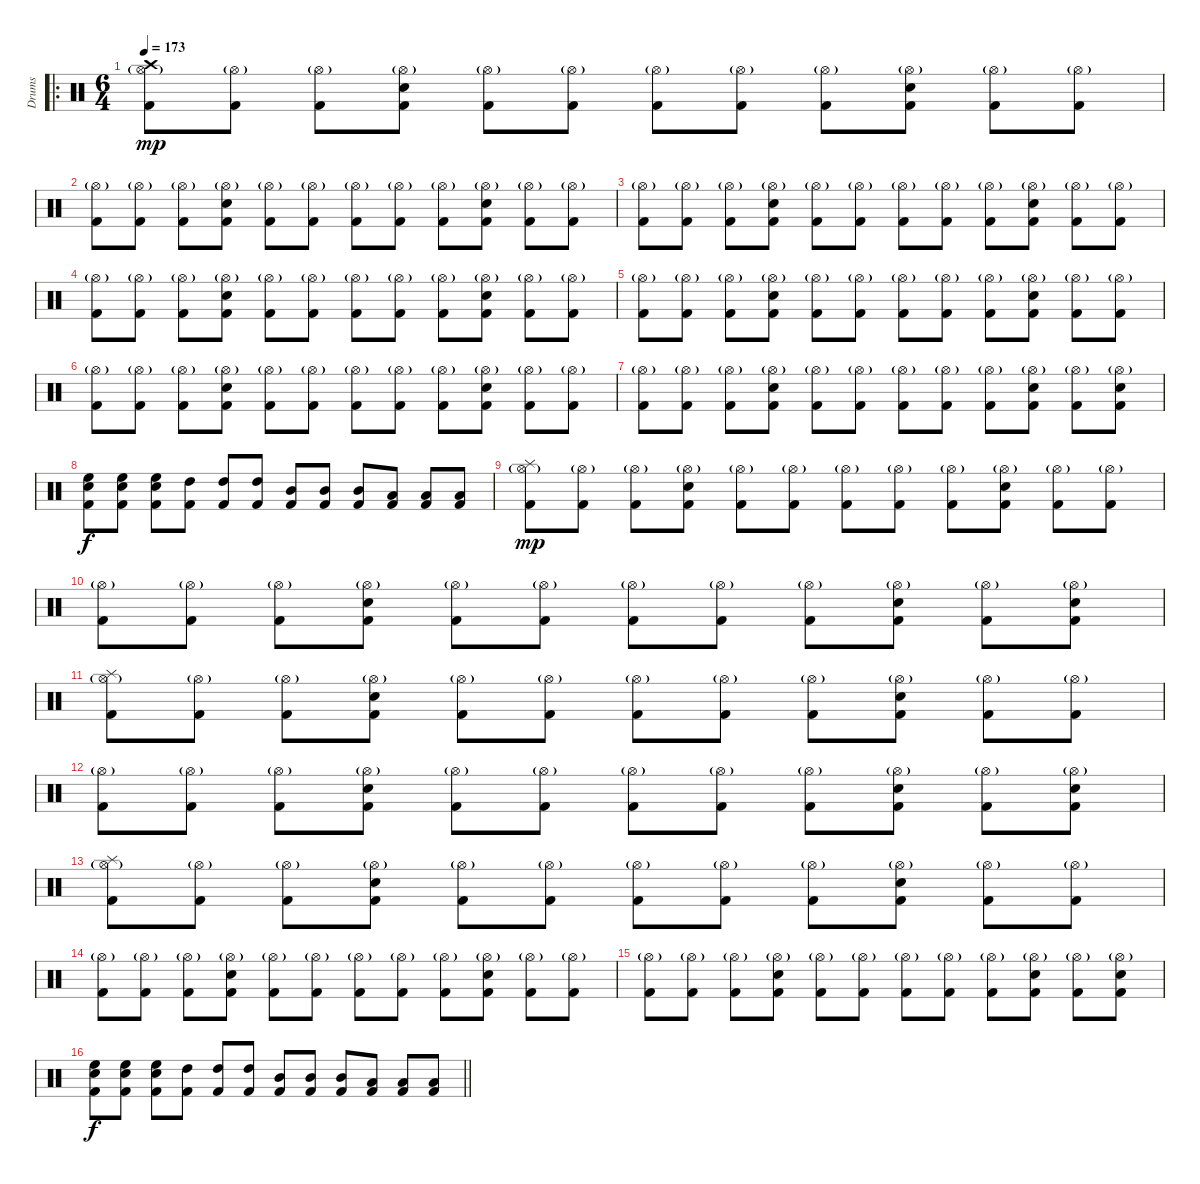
\track ("Drums" "Drums") {instrument percussion}
\staff {score}
\articulation defaults
\ro
\ts (6 4)
\section ("" "")
\tempo 173
\clef neutral
\ks c
("Kick (hit) 2" "Hi-Hat (open)"{g} "Crash high (hit)").8{dy mp} ("Kick (hit) 2" "Hi-Hat (open)"{g}).8 ("Kick (hit) 2" "Hi-Hat (open)"{g}).8 ("Kick (hit) 2" "Snare (hit) 2" "Hi-Hat (open)"{g}).8 ("Kick (hit) 2" "Hi-Hat (open)"{g}).8 ("Kick (hit) 2" "Hi-Hat (open)"{g}).8 ("Kick (hit) 2" "Hi-Hat (open)"{g}).8 ("Kick (hit) 2" "Hi-Hat (open)"{g}).8 ("Kick (hit) 2" "Hi-Hat (open)"{g}).8 ("Kick (hit) 2" "Snare (hit) 2" "Hi-Hat (open)"{g}).8 ("Kick (hit) 2" "Hi-Hat (open)"{g}).8 ("Kick (hit) 2" "Hi-Hat (open)"{g}).8 |
("Kick (hit) 2" "Hi-Hat (open)"{g}).8 ("Kick (hit) 2" "Hi-Hat (open)"{g}).8 ("Kick (hit) 2" "Hi-Hat (open)"{g}).8 ("Kick (hit) 2" "Snare (hit) 2" "Hi-Hat (open)"{g}).8 ("Kick (hit) 2" "Hi-Hat (open)"{g}).8 ("Kick (hit) 2" "Hi-Hat (open)"{g}).8 ("Kick (hit) 2" "Hi-Hat (open)"{g}).8 ("Kick (hit) 2" "Hi-Hat (open)"{g}).8 ("Kick (hit) 2" "Hi-Hat (open)"{g}).8 ("Kick (hit) 2" "Snare (hit) 2" "Hi-Hat (open)"{g}).8 ("Kick (hit) 2" "Hi-Hat (open)"{g}).8 ("Kick (hit) 2" "Hi-Hat (open)"{g}).8 |
("Kick (hit) 2" "Hi-Hat (open)"{g}).8 ("Kick (hit) 2" "Hi-Hat (open)"{g}).8 ("Kick (hit) 2" "Hi-Hat (open)"{g}).8 ("Kick (hit) 2" "Snare (hit) 2" "Hi-Hat (open)"{g}).8 ("Kick (hit) 2" "Hi-Hat (open)"{g}).8 ("Kick (hit) 2" "Hi-Hat (open)"{g}).8 ("Kick (hit) 2" "Hi-Hat (open)"{g}).8 ("Kick (hit) 2" "Hi-Hat (open)"{g}).8 ("Kick (hit) 2" "Hi-Hat (open)"{g}).8 ("Kick (hit) 2" "Snare (hit) 2" "Hi-Hat (open)"{g}).8 ("Kick (hit) 2" "Hi-Hat (open)"{g}).8 ("Kick (hit) 2" "Hi-Hat (open)"{g}).8 |
("Kick (hit) 2" "Hi-Hat (open)"{g}).8 ("Kick (hit) 2" "Hi-Hat (open)"{g}).8 ("Kick (hit) 2" "Hi-Hat (open)"{g}).8 ("Kick (hit) 2" "Snare (hit) 2" "Hi-Hat (open)"{g}).8 ("Kick (hit) 2" "Hi-Hat (open)"{g}).8 ("Kick (hit) 2" "Hi-Hat (open)"{g}).8 ("Kick (hit) 2" "Hi-Hat (open)"{g}).8 ("Kick (hit) 2" "Hi-Hat (open)"{g}).8 ("Kick (hit) 2" "Hi-Hat (open)"{g}).8 ("Kick (hit) 2" "Snare (hit) 2" "Hi-Hat (open)"{g}).8 ("Kick (hit) 2" "Hi-Hat (open)"{g}).8 ("Kick (hit) 2" "Hi-Hat (open)"{g}).8 |
("Kick (hit) 2" "Hi-Hat (open)"{g}).8 ("Kick (hit) 2" "Hi-Hat (open)"{g}).8 ("Kick (hit) 2" "Hi-Hat (open)"{g}).8 ("Kick (hit) 2" "Snare (hit) 2" "Hi-Hat (open)"{g}).8 ("Kick (hit) 2" "Hi-Hat (open)"{g}).8 ("Kick (hit) 2" "Hi-Hat (open)"{g}).8 ("Kick (hit) 2" "Hi-Hat (open)"{g}).8 ("Kick (hit) 2" "Hi-Hat (open)"{g}).8 ("Kick (hit) 2" "Hi-Hat (open)"{g}).8 ("Kick (hit) 2" "Snare (hit) 2" "Hi-Hat (open)"{g}).8 ("Kick (hit) 2" "Hi-Hat (open)"{g}).8 ("Kick (hit) 2" "Hi-Hat (open)"{g}).8 |
("Kick (hit) 2" "Hi-Hat (open)"{g}).8 ("Kick (hit) 2" "Hi-Hat (open)"{g}).8 ("Kick (hit) 2" "Hi-Hat (open)"{g}).8 ("Kick (hit) 2" "Snare (hit) 2" "Hi-Hat (open)"{g}).8 ("Kick (hit) 2" "Hi-Hat (open)"{g}).8 ("Kick (hit) 2" "Hi-Hat (open)"{g}).8 ("Kick (hit) 2" "Hi-Hat (open)"{g}).8 ("Kick (hit) 2" "Hi-Hat (open)"{g}).8 ("Kick (hit) 2" "Hi-Hat (open)"{g}).8 ("Kick (hit) 2" "Snare (hit) 2" "Hi-Hat (open)"{g}).8 ("Kick (hit) 2" "Hi-Hat (open)"{g}).8 ("Kick (hit) 2" "Hi-Hat (open)"{g}).8 |
("Kick (hit) 2" "Hi-Hat (open)"{g}).8 ("Kick (hit) 2" "Hi-Hat (open)"{g}).8 ("Kick (hit) 2" "Hi-Hat (open)"{g}).8 ("Kick (hit) 2" "Snare (hit) 2" "Hi-Hat (open)"{g}).8 ("Kick (hit) 2" "Hi-Hat (open)"{g}).8 ("Kick (hit) 2" "Hi-Hat (open)"{g}).8 ("Kick (hit) 2" "Hi-Hat (open)"{g}).8 ("Kick (hit) 2" "Hi-Hat (open)"{g}).8 ("Kick (hit) 2" "Hi-Hat (open)"{g}).8 ("Kick (hit) 2" "Snare (hit) 2" "Hi-Hat (open)"{g}).8 ("Kick (hit) 2" "Hi-Hat (open)"{g}).8 ("Kick (hit) 2" "Snare (hit) 2" "Hi-Hat (open)"{g}).8 |
("Kick (hit) 2" "Snare (hit) 2" "High Floor Tom (hit)").8{dy f} ("Kick (hit) 2" "Snare (hit) 2" "High Floor Tom (hit)").8 ("Kick (hit) 2" "Snare (hit) 2" "High Floor Tom (hit)").8 ("Kick (hit) 2" "High Tom (hit)").8 ("Kick (hit) 2" "High Tom (hit)").8 ("Kick (hit) 2" "High Tom (hit)").8 ("Kick (hit) 2" "Mid Tom (hit)").8 ("Kick (hit) 2" "Mid Tom (hit)").8 ("Kick (hit) 2" "Mid Tom (hit)").8 ("Kick (hit) 2" "Low Tom (hit)").8 ("Kick (hit) 2" "Low Tom (hit)").8 ("Kick (hit) 2" "Low Tom (hit)").8 |
("Kick (hit) 2" "Hi-Hat (open)"{g} "Splash (hit)").8{dy mp} ("Kick (hit) 2" "Hi-Hat (open)"{g}).8 ("Kick (hit) 2" "Hi-Hat (open)"{g}).8 ("Kick (hit) 2" "Snare (hit) 2" "Hi-Hat (open)"{g}).8 ("Kick (hit) 2" "Hi-Hat (open)"{g}).8 ("Kick (hit) 2" "Hi-Hat (open)"{g}).8 ("Kick (hit) 2" "Hi-Hat (open)"{g}).8 ("Kick (hit) 2" "Hi-Hat (open)"{g}).8 ("Kick (hit) 2" "Hi-Hat (open)"{g}).8 ("Kick (hit) 2" "Snare (hit) 2" "Hi-Hat (open)"{g}).8 ("Kick (hit) 2" "Hi-Hat (open)"{g}).8 ("Kick (hit) 2" "Hi-Hat (open)"{g}).8 |
("Kick (hit) 2" "Hi-Hat (open)"{g}).8 ("Kick (hit) 2" "Hi-Hat (open)"{g}).8 ("Kick (hit) 2" "Hi-Hat (open)"{g}).8 ("Kick (hit) 2" "Snare (hit) 2" "Hi-Hat (open)"{g}).8 ("Kick (hit) 2" "Hi-Hat (open)"{g}).8 ("Kick (hit) 2" "Hi-Hat (open)"{g}).8 ("Kick (hit) 2" "Hi-Hat (open)"{g}).8 ("Kick (hit) 2" "Hi-Hat (open)"{g}).8 ("Kick (hit) 2" "Hi-Hat (open)"{g}).8 ("Kick (hit) 2" "Snare (hit) 2" "Hi-Hat (open)"{g}).8 ("Kick (hit) 2" "Hi-Hat (open)"{g}).8 ("Kick (hit) 2" "Snare (hit) 2" "Hi-Hat (open)"{g}).8 |
("Kick (hit) 2" "Hi-Hat (open)"{g} "Splash (hit)").8 ("Kick (hit) 2" "Hi-Hat (open)"{g}).8 ("Kick (hit) 2" "Hi-Hat (open)"{g}).8 ("Kick (hit) 2" "Snare (hit) 2" "Hi-Hat (open)"{g}).8 ("Kick (hit) 2" "Hi-Hat (open)"{g}).8 ("Kick (hit) 2" "Hi-Hat (open)"{g}).8 ("Kick (hit) 2" "Hi-Hat (open)"{g}).8 ("Kick (hit) 2" "Hi-Hat (open)"{g}).8 ("Kick (hit) 2" "Hi-Hat (open)"{g}).8 ("Kick (hit) 2" "Snare (hit) 2" "Hi-Hat (open)"{g}).8 ("Kick (hit) 2" "Hi-Hat (open)"{g}).8 ("Kick (hit) 2" "Hi-Hat (open)"{g}).8 |
("Kick (hit) 2" "Hi-Hat (open)"{g}).8 ("Kick (hit) 2" "Hi-Hat (open)"{g}).8 ("Kick (hit) 2" "Hi-Hat (open)"{g}).8 ("Kick (hit) 2" "Snare (hit) 2" "Hi-Hat (open)"{g}).8 ("Kick (hit) 2" "Hi-Hat (open)"{g}).8 ("Kick (hit) 2" "Hi-Hat (open)"{g}).8 ("Kick (hit) 2" "Hi-Hat (open)"{g}).8 ("Kick (hit) 2" "Hi-Hat (open)"{g}).8 ("Kick (hit) 2" "Hi-Hat (open)"{g}).8 ("Kick (hit) 2" "Snare (hit) 2" "Hi-Hat (open)"{g}).8 ("Kick (hit) 2" "Hi-Hat (open)"{g}).8 ("Kick (hit) 2" "Snare (hit) 2" "Hi-Hat (open)"{g}).8 |
("Kick (hit) 2" "Hi-Hat (open)"{g} "Splash (hit)").8 ("Kick (hit) 2" "Hi-Hat (open)"{g}).8 ("Kick (hit) 2" "Hi-Hat (open)"{g}).8 ("Kick (hit) 2" "Snare (hit) 2" "Hi-Hat (open)"{g}).8 ("Kick (hit) 2" "Hi-Hat (open)"{g}).8 ("Kick (hit) 2" "Hi-Hat (open)"{g}).8 ("Kick (hit) 2" "Hi-Hat (open)"{g}).8 ("Kick (hit) 2" "Hi-Hat (open)"{g}).8 ("Kick (hit) 2" "Hi-Hat (open)"{g}).8 ("Kick (hit) 2" "Snare (hit) 2" "Hi-Hat (open)"{g}).8 ("Kick (hit) 2" "Hi-Hat (open)"{g}).8 ("Kick (hit) 2" "Hi-Hat (open)"{g}).8 |
("Kick (hit) 2" "Hi-Hat (open)"{g}).8 ("Kick (hit) 2" "Hi-Hat (open)"{g}).8 ("Kick (hit) 2" "Hi-Hat (open)"{g}).8 ("Kick (hit) 2" "Snare (hit) 2" "Hi-Hat (open)"{g}).8 ("Kick (hit) 2" "Hi-Hat (open)"{g}).8 ("Kick (hit) 2" "Hi-Hat (open)"{g}).8 ("Kick (hit) 2" "Hi-Hat (open)"{g}).8 ("Kick (hit) 2" "Hi-Hat (open)"{g}).8 ("Kick (hit) 2" "Hi-Hat (open)"{g}).8 ("Kick (hit) 2" "Snare (hit) 2" "Hi-Hat (open)"{g}).8 ("Kick (hit) 2" "Hi-Hat (open)"{g}).8 ("Kick (hit) 2" "Hi-Hat (open)"{g}).8 |
("Kick (hit) 2" "Hi-Hat (open)"{g}).8 ("Kick (hit) 2" "Hi-Hat (open)"{g}).8 ("Kick (hit) 2" "Hi-Hat (open)"{g}).8 ("Kick (hit) 2" "Snare (hit) 2" "Hi-Hat (open)"{g}).8 ("Kick (hit) 2" "Hi-Hat (open)"{g}).8 ("Kick (hit) 2" "Hi-Hat (open)"{g}).8 ("Kick (hit) 2" "Hi-Hat (open)"{g}).8 ("Kick (hit) 2" "Hi-Hat (open)"{g}).8 ("Kick (hit) 2" "Hi-Hat (open)"{g}).8 ("Kick (hit) 2" "Snare (hit) 2" "Hi-Hat (open)"{g}).8 ("Kick (hit) 2" "Hi-Hat (open)"{g}).8 ("Kick (hit) 2" "Snare (hit) 2" "Hi-Hat (open)"{g}).8 |
\barLineRight lightlight
("Kick (hit) 2" "Snare (hit) 2" "High Floor Tom (hit)").8{dy f} ("Kick (hit) 2" "Snare (hit) 2" "High Floor Tom (hit)").8 ("Kick (hit) 2" "Snare (hit) 2" "High Floor Tom (hit)").8 ("Kick (hit) 2" "High Tom (hit)").8 ("Kick (hit) 2" "High Tom (hit)").8 ("Kick (hit) 2" "High Tom (hit)").8 ("Kick (hit) 2" "Mid Tom (hit)").8 ("Kick (hit) 2" "Mid Tom (hit)").8 ("Kick (hit) 2" "Mid Tom (hit)").8 ("Kick (hit) 2" "Low Tom (hit)").8 ("Kick (hit) 2" "Low Tom (hit)").8 ("Kick (hit) 2" "Low Tom (hit)").8
